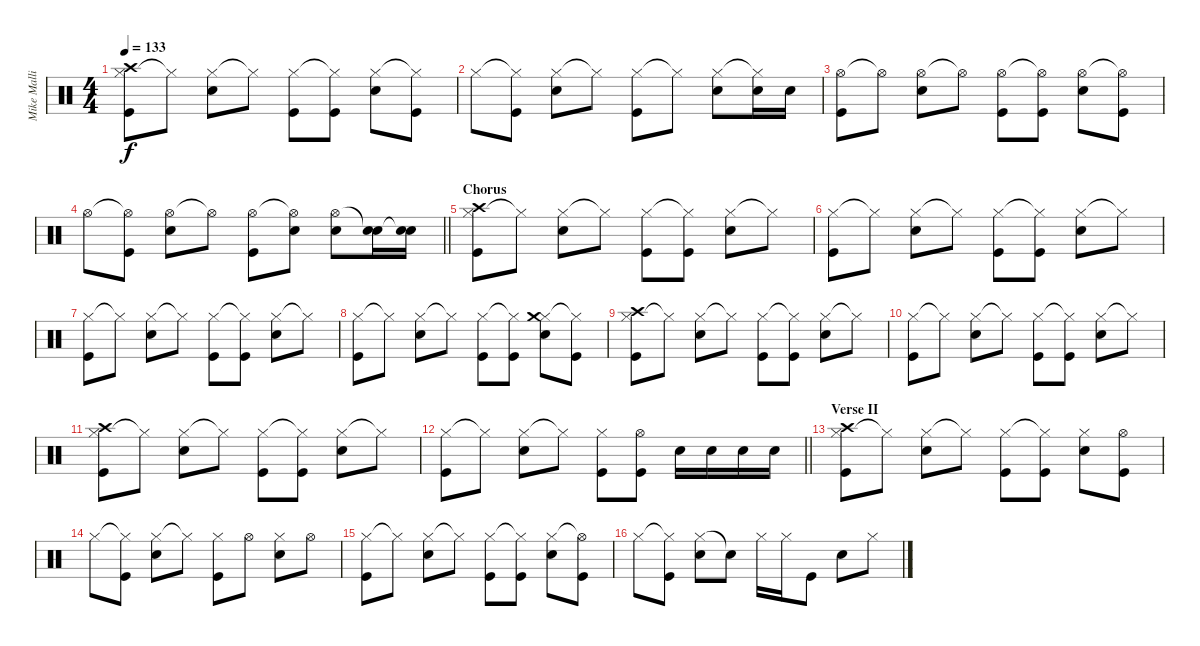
\track ("Mike Mallinin" "Mike Malli") {instrument percussion}
\staff {score}
\articulation defaults
\ts (4 4)
\tempo 133
\clef neutral
\ks c
("Hi-Hat (closed)" "Crash high (hit)" "Kick (hit)").8{dy f} "Hi-Hat (closed)"{t}.8 ("Hi-Hat (closed)" "Snare (hit) 2").8 "Hi-Hat (closed)"{t}.8 ("Hi-Hat (closed)" "Kick (hit)").8 ("Hi-Hat (closed)"{t} "Kick (hit)").8 ("Hi-Hat (closed)" "Snare (hit) 2").8 ("Hi-Hat (closed)"{t} "Kick (hit)").8 |
"Hi-Hat (closed)".8 ("Hi-Hat (closed)"{t} "Kick (hit)").8 ("Hi-Hat (closed)" "Snare (hit) 2").8 "Hi-Hat (closed)"{t}.8 ("Hi-Hat (closed)" "Kick (hit)").8 "Hi-Hat (closed)"{t}.8 ("Hi-Hat (closed)" "Snare (hit) 2").8 ("Hi-Hat (closed)"{t} "Snare (hit) 2").16 "Snare (hit) 2".16 |
("Hi-Hat (open)" "Kick (hit)").8 "Hi-Hat (open)"{t}.8 ("Hi-Hat (open)" "Snare (hit) 2").8 "Hi-Hat (open)"{t}.8 ("Hi-Hat (open)" "Kick (hit)").8 ("Hi-Hat (open)"{t} "Kick (hit)").8 ("Hi-Hat (open)" "Snare (hit) 2").8 ("Hi-Hat (open)"{t} "Kick (hit)").8 |
\barLineRight lightlight "Hi-Hat (open)".8
("Hi-Hat (open)"{t} "Kick (hit)").8 ("Hi-Hat (open)" "Snare (hit) 2").8 "Hi-Hat (open)"{t}.8 ("Hi-Hat (open)" "Kick (hit)").8 ("Hi-Hat (open)"{t} "Snare (hit) 2").8 ("Hi-Hat (open)" "Snare (hit) 2").8 ("Snare (hit)"{t} "Snare (hit) 2").16 ("Snare (hit)"{t} "Snare (hit) 2").16 |
\section ("" "Chorus")
("Hi-Hat (closed)" "Crash high (hit)" "Kick (hit)").8 "Hi-Hat (closed)"{t}.8 ("Hi-Hat (closed)" "Snare (hit) 2").8 "Hi-Hat (closed)"{t}.8 ("Hi-Hat (closed)" "Kick (hit)").8 ("Hi-Hat (closed)"{t} "Kick (hit)").8 ("Hi-Hat (closed)" "Snare (hit) 2").8 "Hi-Hat (closed)"{t}.8 |
("Hi-Hat (closed)" "Kick (hit)").8 "Hi-Hat (closed)"{t}.8 ("Hi-Hat (closed)" "Snare (hit) 2").8 "Hi-Hat (closed)"{t}.8 ("Hi-Hat (closed)" "Kick (hit)").8 ("Hi-Hat (closed)"{t} "Kick (hit)").8 ("Hi-Hat (closed)" "Snare (hit) 2").8 "Hi-Hat (closed)"{t}.8 |
("Hi-Hat (closed)" "Kick (hit)").8 "Hi-Hat (closed)"{t}.8 ("Hi-Hat (closed)" "Snare (hit) 2").8 "Hi-Hat (closed)"{t}.8 ("Hi-Hat (closed)" "Kick (hit)").8 ("Hi-Hat (closed)"{t} "Kick (hit)").8 ("Hi-Hat (closed)" "Snare (hit) 2").8 "Hi-Hat (closed)"{t}.8 |
("Hi-Hat (closed)" "Kick (hit)").8 "Hi-Hat (closed)"{t}.8 ("Hi-Hat (closed)" "Snare (hit) 2").8 "Hi-Hat (closed)"{t}.8 ("Hi-Hat (closed)" "Kick (hit)").8 ("Hi-Hat (closed)"{t} "Kick (hit)").8 ("Hi-Hat (closed)" "Crash medium (hit)" "Snare (hit) 2").8 ("Hi-Hat (closed)"{t} "Kick (hit)").8 |
("Hi-Hat (closed)" "Crash high (hit)" "Kick (hit)").8 "Hi-Hat (closed)"{t}.8 ("Hi-Hat (closed)" "Snare (hit) 2").8 "Hi-Hat (closed)"{t}.8 ("Hi-Hat (closed)" "Kick (hit)").8 ("Hi-Hat (closed)"{t} "Kick (hit)").8 ("Hi-Hat (closed)" "Snare (hit) 2").8 "Hi-Hat (closed)"{t}.8 |
("Hi-Hat (closed)" "Kick (hit)").8 "Hi-Hat (closed)"{t}.8 ("Hi-Hat (closed)" "Snare (hit) 2").8 "Hi-Hat (closed)"{t}.8 ("Hi-Hat (closed)" "Kick (hit)").8 ("Hi-Hat (closed)"{t} "Kick (hit)").8 ("Hi-Hat (closed)" "Snare (hit) 2").8 "Hi-Hat (closed)"{t}.8 |
("Hi-Hat (closed)" "Crash high (hit)" "Kick (hit)").8 "Hi-Hat (closed)"{t}.8 ("Hi-Hat (closed)" "Snare (hit) 2").8 "Hi-Hat (closed)"{t}.8 ("Hi-Hat (closed)" "Kick (hit)").8 ("Hi-Hat (closed)"{t} "Kick (hit)").8 ("Hi-Hat (closed)" "Snare (hit) 2").8 "Hi-Hat (closed)"{t}.8 |
\barLineRight lightlight
("Hi-Hat (closed)" "Kick (hit)").8 "Hi-Hat (closed)"{t}.8 ("Hi-Hat (closed)" "Snare (hit) 2").8 "Hi-Hat (closed)"{t}.8 ("Hi-Hat (closed)" "Kick (hit)").8 ("Hi-Hat (open)" "Kick (hit)").8 "Snare (hit) 2".16 "Snare (hit) 2".16 "Snare (hit) 2".16 "Snare (hit) 2".16 |
\section ("" "Verse II")
("Hi-Hat (closed)" "Crash high (hit)" "Kick (hit)").8 "Hi-Hat (closed)"{t}.8 ("Hi-Hat (closed)" "Snare (hit) 2").8 "Hi-Hat (closed)"{t}.8 ("Hi-Hat (closed)" "Kick (hit)").8 ("Hi-Hat (closed)"{t} "Kick (hit)").8 ("Hi-Hat (closed)" "Snare (hit) 2").8 ("Hi-Hat (open)" "Kick (hit)").8 |
"Hi-Hat (closed)".8 ("Hi-Hat (closed)"{t} "Kick (hit)").8 ("Hi-Hat (closed)" "Snare (hit) 2").8 "Hi-Hat (closed)"{t}.8 ("Hi-Hat (closed)" "Kick (hit)").8 "Hi-Hat (open)".8 ("Hi-Hat (closed)" "Snare (hit) 2").8 "Hi-Hat (open)".8 |
("Hi-Hat (closed)" "Kick (hit)").8 "Hi-Hat (closed)"{t}.8 ("Hi-Hat (closed)" "Snare (hit) 2").8 "Hi-Hat (closed)"{t}.8 ("Hi-Hat (closed)" "Kick (hit)").8 ("Hi-Hat (closed)"{t} "Kick (hit)").8 ("Hi-Hat (closed)" "Snare (hit) 2").8 ("Hi-Hat (open)"{t} "Kick (hit)").8 |
"Hi-Hat (closed)".8 ("Hi-Hat (closed)"{t} "Kick (hit)").8 ("Hi-Hat (closed)" "Snare (hit) 2").8 "Snare (hit)"{t}.8 "Hi-Hat (closed)".16 "Hi-Hat (closed)".16 "Kick (hit)".8 "Snare (hit) 2".8 "Hi-Hat (closed)".8
